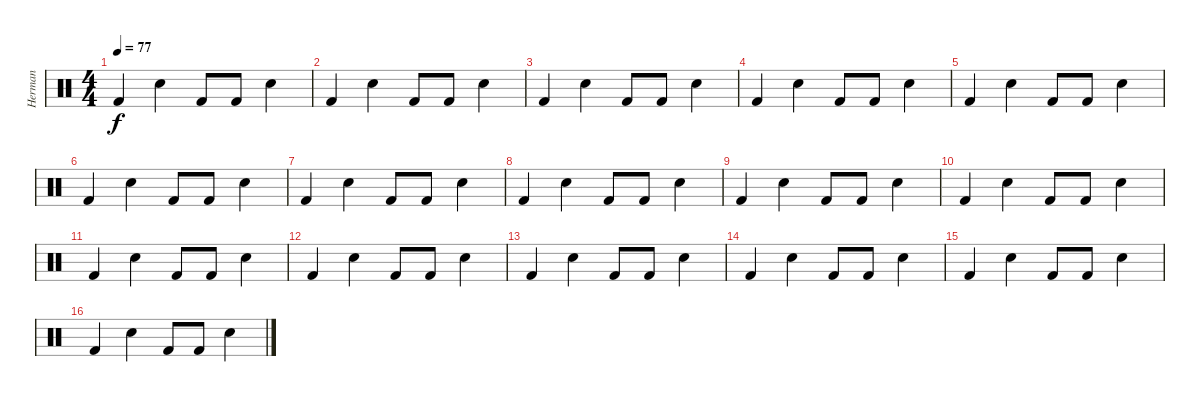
\track ("Herman" "Herman") {instrument percussion}
\staff {score}
\articulation defaults
\ts (4 4)
\tempo 77
\clef neutral
\ks c "Kick (hit) 2".4{dy f} "Snare (hit) 2".4 "Kick (hit) 2".8 "Kick (hit) 2".8 "Snare (hit) 2".4
|
"Kick (hit) 2".4 "Snare (hit) 2".4 "Kick (hit) 2".8 "Kick (hit) 2".8 "Snare (hit) 2".4 |
"Kick (hit) 2".4 "Snare (hit) 2".4 "Kick (hit) 2".8 "Kick (hit) 2".8 "Snare (hit) 2".4 |
"Kick (hit) 2".4 "Snare (hit) 2".4 "Kick (hit) 2".8 "Kick (hit) 2".8 "Snare (hit) 2".4 |
"Kick (hit) 2".4 "Snare (hit) 2".4 "Kick (hit) 2".8 "Kick (hit) 2".8 "Snare (hit) 2".4 |
"Kick (hit) 2".4 "Snare (hit) 2".4 "Kick (hit) 2".8 "Kick (hit) 2".8 "Snare (hit) 2".4 |
"Kick (hit) 2".4 "Snare (hit) 2".4 "Kick (hit) 2".8 "Kick (hit) 2".8 "Snare (hit) 2".4 |
"Kick (hit) 2".4 "Snare (hit) 2".4 "Kick (hit) 2".8 "Kick (hit) 2".8 "Snare (hit) 2".4 |
"Kick (hit) 2".4 "Snare (hit) 2".4 "Kick (hit) 2".8 "Kick (hit) 2".8 "Snare (hit) 2".4 |
"Kick (hit) 2".4 "Snare (hit) 2".4 "Kick (hit) 2".8 "Kick (hit) 2".8 "Snare (hit) 2".4 |
"Kick (hit) 2".4 "Snare (hit) 2".4 "Kick (hit) 2".8 "Kick (hit) 2".8 "Snare (hit) 2".4 |
"Kick (hit) 2".4 "Snare (hit) 2".4 "Kick (hit) 2".8 "Kick (hit) 2".8 "Snare (hit) 2".4 |
"Kick (hit) 2".4 "Snare (hit) 2".4 "Kick (hit) 2".8 "Kick (hit) 2".8 "Snare (hit) 2".4 |
"Kick (hit) 2".4 "Snare (hit) 2".4 "Kick (hit) 2".8 "Kick (hit) 2".8 "Snare (hit) 2".4 |
"Kick (hit) 2".4 "Snare (hit) 2".4 "Kick (hit) 2".8 "Kick (hit) 2".8 "Snare (hit) 2".4 |
"Kick (hit) 2".4 "Snare (hit) 2".4 "Kick (hit) 2".8 "Kick (hit) 2".8 "Snare (hit) 2".4
